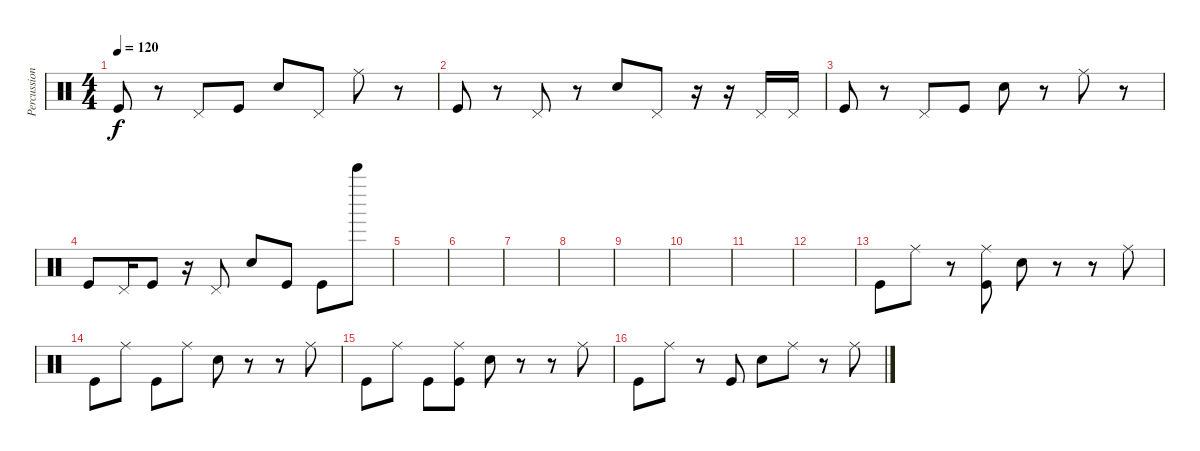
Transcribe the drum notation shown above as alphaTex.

\track ("Percussions" "Percussion") {instrument percussion}
\staff {score}
\articulation defaults
\ts (4 4)
\tempo 120
\clef neutral
\ks c "Kick (hit)".8{dy f}
r.8 "Pedal Hi-Hat (hit)".8 "Kick (hit)".8 "Electric Snare (hit)".8 "Pedal Hi-Hat (hit)".8 "Ride (middle)".8 r.8 |
"Kick (hit)".8 r.8 "Pedal Hi-Hat (hit)".8 r.8 "Electric Snare (hit)".8 "Pedal Hi-Hat (hit)".8 r.16 r.16 "Pedal Hi-Hat (hit)".16 "Pedal Hi-Hat (hit)".16 |
"Kick (hit)".8 r.8 "Pedal Hi-Hat (hit)".8 "Kick (hit)".8 "Electric Snare (hit)".8 r.8 "Ride (middle)".8 r.8 |
"Kick (hit)".8 "Pedal Hi-Hat (hit)".16 "Kick (hit)".8 r.16 "Pedal Hi-Hat (hit)".8 "Electric Snare (hit)".8 "Kick (hit)".8 "Kick (hit)".8 "Bell Tree (hit)".8 |
|
|
|
|
|
|
|
|
"Kick (hit)".8 "Ride (middle)".8 r.8 ("Ride (middle)" "Kick (hit)").8 "Electric Snare (hit)".8 r.8 r.8 "Ride (middle)".8 |
"Kick (hit)".8 "Ride (middle)".8 "Kick (hit)".8 "Ride (middle)".8 "Electric Snare (hit)".8 r.8 r.8 "Ride (middle)".8 |
"Kick (hit)".8 "Ride (middle)".8 "Kick (hit)".8 ("Ride (middle)" "Kick (hit)").8 "Electric Snare (hit)".8 r.8 r.8 "Ride (middle)".8 |
"Kick (hit)".8 "Ride (middle)".8 r.8 "Kick (hit)".8 "Electric Snare (hit)".8 "Ride (middle)".8 r.8 "Ride (middle)".8
